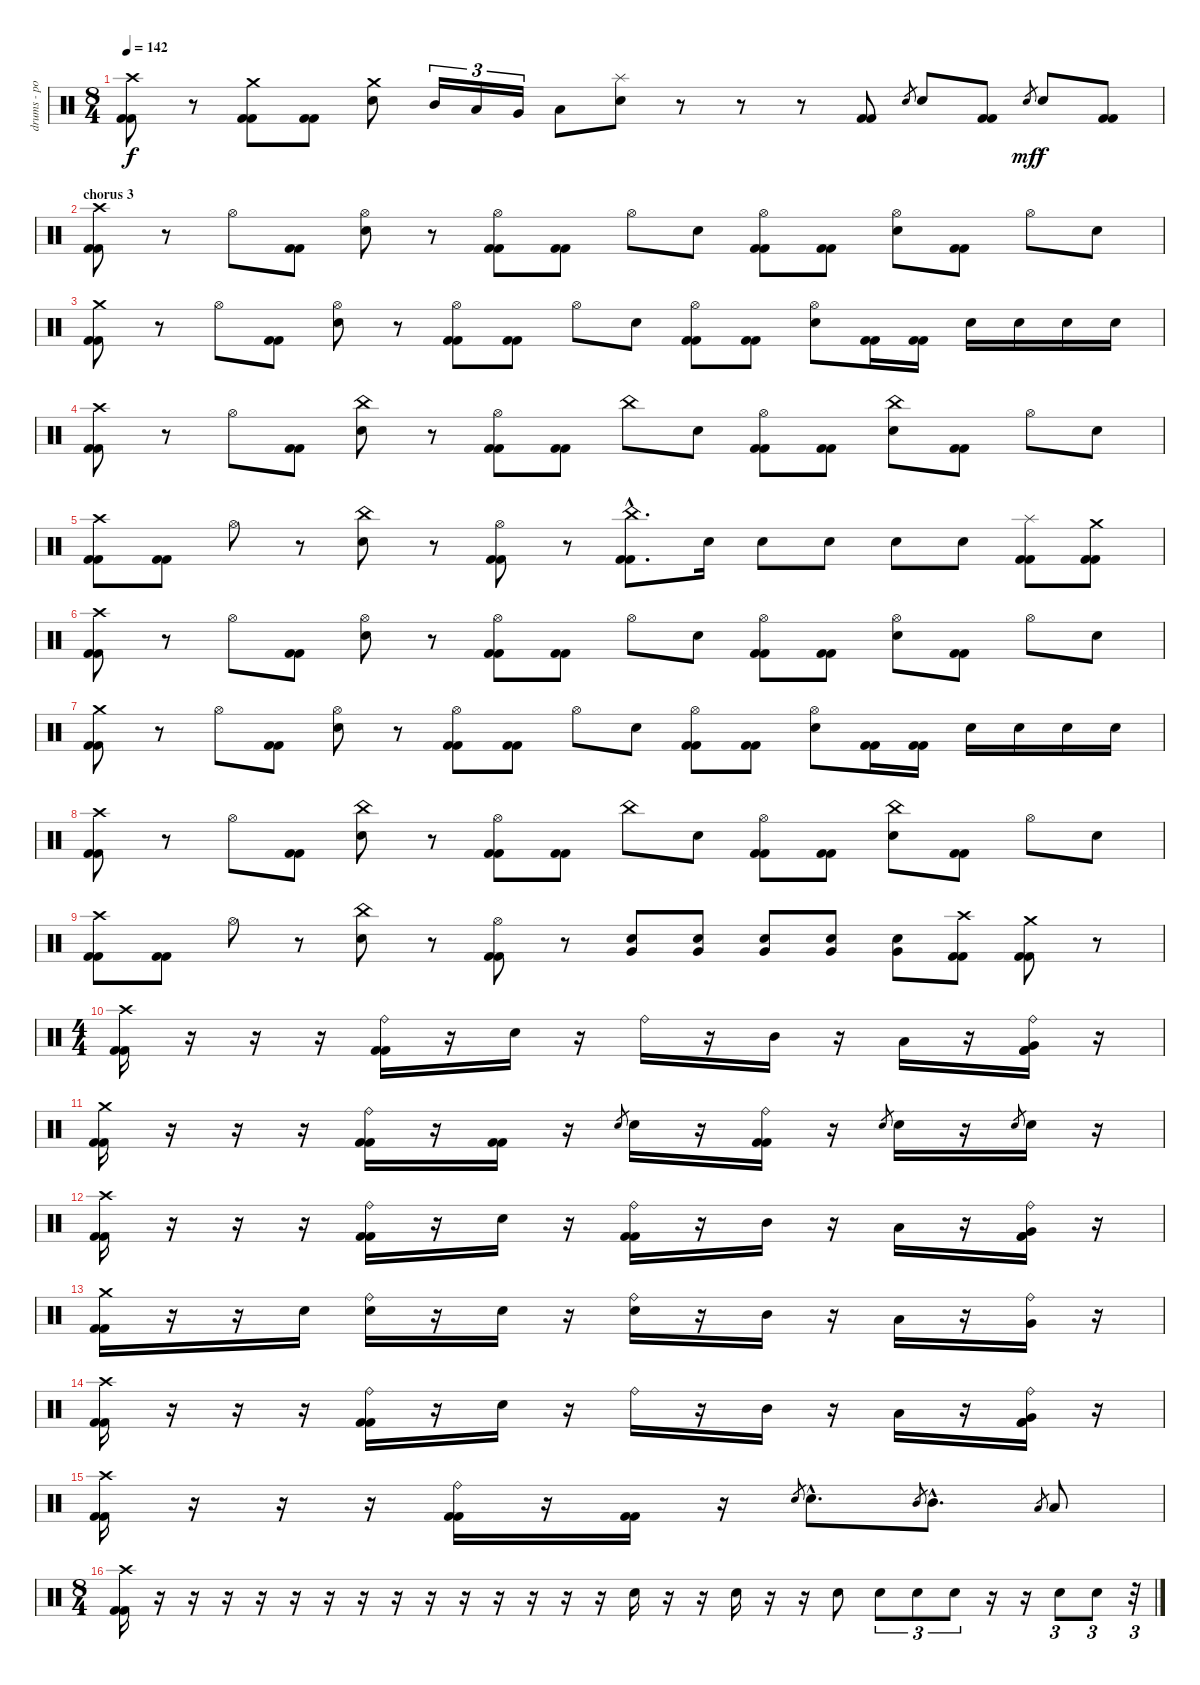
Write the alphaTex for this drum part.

\track ("drums - portnoy" "drums - po") {instrument percussion}
\staff {score}
\articulation defaults
\ts (8 4)
\tempo 142
\clef neutral
\ks c
("Crash high (hit)" "Kick (hit) 2" "Kick (hit) 2").8{dy f} r.8 ("Crash medium (hit)" "Kick (hit) 2" "Kick (hit) 2").8 ("Kick (hit) 2" "Kick (hit) 2").8 ("Crash medium (hit)" "Electric Snare (hit)").8 "Mid Tom (hit)".16{tu (3 2)} "Low Tom (hit)".16{tu (3 2)} "Very Low Tom (hit)".16{tu (3 2)} "Low Floor Tom (hit)".8 ("Splash (hit)" "Electric Snare (hit)").8 r.8 r.8 r.8 ("Kick (hit) 2" "Kick (hit) 2").8 "Electric Snare (hit)".8{gr} "Electric Snare (hit)".8 ("Kick (hit) 2" "Kick (hit) 2").8 "Electric Snare (hit)".8{gr dy mf} "Electric Snare (hit)".8{dy f} ("Kick (hit) 2" "Kick (hit) 2").8 |
\section ("" "chorus 3")
("Crash high (hit)" "Kick (hit) 2" "Kick (hit) 2").8 r.8 "Hi-Hat (open)".8 ("Kick (hit) 2" "Kick (hit) 2").8 ("Hi-Hat (open)" "Electric Snare (hit)").8 r.8 ("Hi-Hat (open)" "Kick (hit) 2" "Kick (hit) 2").8 ("Kick (hit) 2" "Kick (hit) 2").8 "Hi-Hat (open)".8 "Electric Snare (hit)".8 ("Hi-Hat (open)" "Kick (hit) 2" "Kick (hit) 2").8 ("Kick (hit) 2" "Kick (hit) 2").8 ("Hi-Hat (open)" "Electric Snare (hit)").8 ("Kick (hit) 2" "Kick (hit) 2").8 "Hi-Hat (open)".8 "Electric Snare (hit)".8 |
("Crash medium (hit)" "Kick (hit) 2" "Kick (hit) 2").8 r.8 "Hi-Hat (open)".8 ("Kick (hit) 2" "Kick (hit) 2").8 ("Hi-Hat (open)" "Electric Snare (hit)").8 r.8 ("Hi-Hat (open)" "Kick (hit) 2" "Kick (hit) 2").8 ("Kick (hit) 2" "Kick (hit) 2").8 "Hi-Hat (open)".8 "Electric Snare (hit)".8 ("Hi-Hat (open)" "Kick (hit) 2" "Kick (hit) 2").8 ("Kick (hit) 2" "Kick (hit) 2").8 ("Hi-Hat (open)" "Electric Snare (hit)").8 ("Kick (hit) 2" "Kick (hit) 2").16 ("Kick (hit) 2" "Kick (hit) 2").16 "Electric Snare (hit)".16 "Electric Snare (hit)".16 "Electric Snare (hit)".16 "Electric Snare (hit)".16 |
("Crash high (hit)" "Kick (hit) 2" "Kick (hit) 2").8 r.8 "Hi-Hat (open)".8 ("Kick (hit) 2" "Kick (hit) 2").8 ("China (hit)" "Electric Snare (hit)").8 r.8 ("Hi-Hat (open)" "Kick (hit) 2" "Kick (hit) 2").8 ("Kick (hit) 2" "Kick (hit) 2").8 "China (hit)".8 "Electric Snare (hit)".8 ("Hi-Hat (open)" "Kick (hit) 2" "Kick (hit) 2").8 ("Kick (hit) 2" "Kick (hit) 2").8 ("China (hit)" "Electric Snare (hit)").8 ("Kick (hit) 2" "Kick (hit) 2").8 "Hi-Hat (open)".8 "Electric Snare (hit)".8 |
("Crash high (hit)" "Kick (hit) 2" "Kick (hit) 2").8 ("Kick (hit) 2" "Kick (hit) 2").8 "Hi-Hat (open)".8 r.8 ("China (hit)" "Electric Snare (hit)").8 r.8 ("Hi-Hat (open)" "Kick (hit) 2" "Kick (hit) 2").8 r.8 ("China (hit)"{hac} "Kick (hit) 2"{hac} "Kick (hit) 2"{hac}).8{d} "Electric Snare (hit)".16 "Electric Snare (hit)".8 "Electric Snare (hit)".8 "Electric Snare (hit)".8 "Electric Snare (hit)".8 ("Splash (hit)" "Kick (hit) 2" "Kick (hit) 2").8 ("Crash medium (hit)" "Kick (hit) 2" "Kick (hit) 2").8 |
("Crash high (hit)" "Kick (hit) 2" "Kick (hit) 2").8 r.8 "Hi-Hat (open)".8 ("Kick (hit) 2" "Kick (hit) 2").8 ("Hi-Hat (open)" "Electric Snare (hit)").8 r.8 ("Hi-Hat (open)" "Kick (hit) 2" "Kick (hit) 2").8 ("Kick (hit) 2" "Kick (hit) 2").8 "Hi-Hat (open)".8 "Electric Snare (hit)".8 ("Hi-Hat (open)" "Kick (hit) 2" "Kick (hit) 2").8 ("Kick (hit) 2" "Kick (hit) 2").8 ("Hi-Hat (open)" "Electric Snare (hit)").8 ("Kick (hit) 2" "Kick (hit) 2").8 "Hi-Hat (open)".8 "Electric Snare (hit)".8 |
("Crash medium (hit)" "Kick (hit) 2" "Kick (hit) 2").8 r.8 "Hi-Hat (open)".8 ("Kick (hit) 2" "Kick (hit) 2").8 ("Hi-Hat (open)" "Electric Snare (hit)").8 r.8 ("Hi-Hat (open)" "Kick (hit) 2" "Kick (hit) 2").8 ("Kick (hit) 2" "Kick (hit) 2").8 "Hi-Hat (open)".8 "Electric Snare (hit)".8 ("Hi-Hat (open)" "Kick (hit) 2" "Kick (hit) 2").8 ("Kick (hit) 2" "Kick (hit) 2").8 ("Hi-Hat (open)" "Electric Snare (hit)").8 ("Kick (hit) 2" "Kick (hit) 2").16 ("Kick (hit) 2" "Kick (hit) 2").16 "Electric Snare (hit)".16 "Electric Snare (hit)".16 "Electric Snare (hit)".16 "Electric Snare (hit)".16 |
("Crash high (hit)" "Kick (hit) 2" "Kick (hit) 2").8 r.8 "Hi-Hat (open)".8 ("Kick (hit) 2" "Kick (hit) 2").8 ("China (hit)" "Electric Snare (hit)").8 r.8 ("Hi-Hat (open)" "Kick (hit) 2" "Kick (hit) 2").8 ("Kick (hit) 2" "Kick (hit) 2").8 "China (hit)".8 "Electric Snare (hit)".8 ("Hi-Hat (open)" "Kick (hit) 2" "Kick (hit) 2").8 ("Kick (hit) 2" "Kick (hit) 2").8 ("China (hit)" "Electric Snare (hit)").8 ("Kick (hit) 2" "Kick (hit) 2").8 "Hi-Hat (open)".8 "Electric Snare (hit)".8 |
("Crash high (hit)" "Kick (hit) 2" "Kick (hit) 2").8 ("Kick (hit) 2" "Kick (hit) 2").8 "Hi-Hat (open)".8 r.8 ("China (hit)" "Electric Snare (hit)").8 r.8 ("Hi-Hat (open)" "Kick (hit) 2" "Kick (hit) 2").8 r.8 ("Electric Snare (hit)" "Very Low Tom (hit)").8 ("Electric Snare (hit)" "Very Low Tom (hit)").8 ("Electric Snare (hit)" "Very Low Tom (hit)").8 ("Electric Snare (hit)" "Very Low Tom (hit)").8 ("Electric Snare (hit)" "Very Low Tom (hit)").8 ("Crash high (hit)" "Kick (hit) 2" "Kick (hit) 2").8 ("Crash medium (hit)" "Kick (hit) 2" "Kick (hit) 2").8 r.8 |
\ts (4 4)
("Crash high (hit)" "Kick (hit) 2" "Kick (hit) 2").16 r.16 r.16 r.16 ("Ride (bell)" "Kick (hit) 2" "Kick (hit) 2").16 r.16 "Electric Snare (hit)".16 r.16 "Ride (bell)".16 r.16 "Mid Tom (hit)".16 r.16 "Low Tom (hit)".16 r.16 ("Ride (bell)" "Very Low Tom (hit)" "Kick (hit) 2" "Kick (hit) 2").16 r.16 |
("Crash medium (hit)" "Kick (hit) 2" "Kick (hit) 2").16 r.16 r.16 r.16 ("Ride (bell)" "Kick (hit) 2" "Kick (hit) 2").16 r.16 ("Kick (hit) 2" "Kick (hit) 2").16 r.16 "Electric Snare (hit)".8{gr} "Electric Snare (hit)".16 r.16 ("Ride (bell)" "Kick (hit) 2" "Kick (hit) 2").16 r.16 "Electric Snare (hit)".8{gr} "Electric Snare (hit)".16 r.16 "Electric Snare (hit)".8{gr} "Electric Snare (hit)".16 r.16 |
("Crash high (hit)" "Kick (hit) 2" "Kick (hit) 2").16 r.16 r.16 r.16 ("Ride (bell)" "Kick (hit) 2" "Kick (hit) 2").16 r.16 "Electric Snare (hit)".16 r.16 ("Ride (bell)" "Kick (hit) 2" "Kick (hit) 2").16 r.16 "Mid Tom (hit)".16 r.16 "Low Tom (hit)".16 r.16 ("Ride (bell)" "Very Low Tom (hit)" "Kick (hit) 2" "Kick (hit) 2").16 r.16 |
("Crash medium (hit)" "Kick (hit) 2" "Kick (hit) 2").16 r.16 r.16 "Electric Snare (hit)".16 ("Ride (bell)" "Electric Snare (hit)").16 r.16 "Electric Snare (hit)".16 r.16 ("Ride (bell)" "Electric Snare (hit)").16 r.16 "Mid Tom (hit)".16 r.16 "Low Tom (hit)".16 r.16 ("Ride (bell)" "Very Low Tom (hit)").16 r.16 |
("Crash high (hit)" "Kick (hit) 2" "Kick (hit) 2").16 r.16 r.16 r.16 ("Ride (bell)" "Kick (hit) 2" "Kick (hit) 2").16 r.16 "Electric Snare (hit)".16 r.16 "Ride (bell)".16 r.16 "Mid Tom (hit)".16 r.16 "Low Tom (hit)".16 r.16 ("Ride (bell)" "Very Low Tom (hit)" "Kick (hit) 2" "Kick (hit) 2").16 r.16 |
("Crash high (hit)" "Kick (hit) 2" "Kick (hit) 2").16 r.16 r.16 r.16 ("Ride (bell)" "Kick (hit) 2" "Kick (hit) 2").16 r.16 ("Kick (hit) 2" "Kick (hit) 2").16 r.16 "Electric Snare (hit)".8{gr} "Electric Snare (hit)"{hac}.8{d} "Mid Tom (hit)".8{gr} "Mid Tom (hit)"{hac}.8{d} "Low Tom (hit)".8{gr} "Low Tom (hit)".8 |
\ts (8 4)
("Crash high (hit)" "Kick (hit) 2" "Kick (hit) 2").16 r.16 r.16 r.16 r.16 r.16 r.16 r.16 r.16 r.16 r.16 r.16 r.16 r.16 r.16 "Electric Snare (hit)".16 r.16 r.16 "Electric Snare (hit)".16 r.16 r.16 "Electric Snare (hit)".8 "Electric Snare (hit)".8{tu (3 2)} "Electric Snare (hit)".8{tu (3 2)} "Electric Snare (hit)".8{tu (3 2)} r.16 r.16 "Electric Snare (hit)".8{tu (3 2)} "Electric Snare (hit)".8{tu (3 2)} r.32{tu (3 2)}
